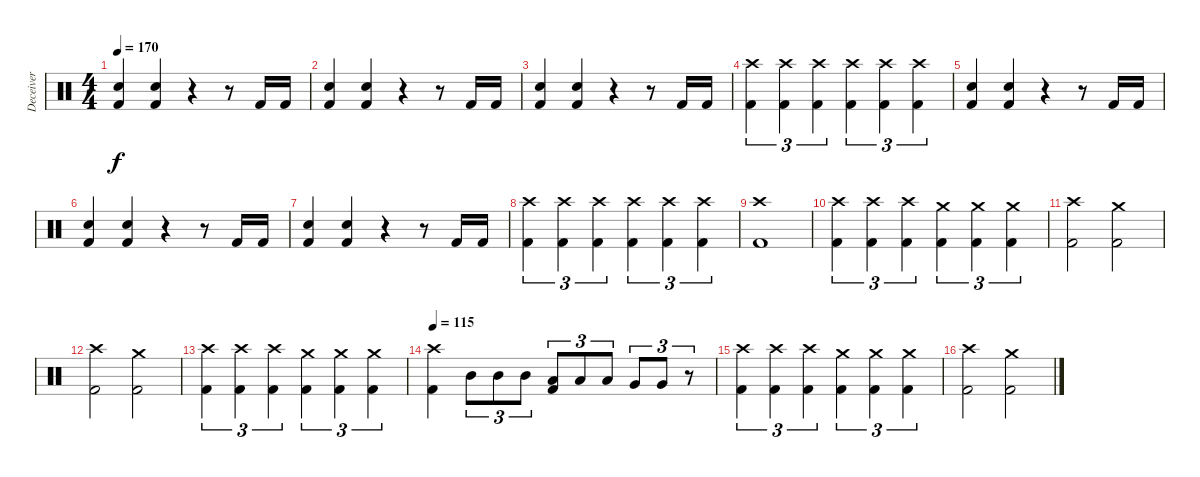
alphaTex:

\track ("Deceiver" "Deceiver") {instrument percussion}
\staff {score}
\articulation defaults
\ts (4 4)
\tempo 170
\clef neutral
\ks c
("Electric Snare (hit)" "Kick (hit) 2").4{dy f} ("Electric Snare (hit)" "Kick (hit) 2").4 r.4 r.8 "Kick (hit) 2".16 "Kick (hit) 2".16 |
("Electric Snare (hit)" "Kick (hit) 2").4 ("Electric Snare (hit)" "Kick (hit) 2").4 r.4 r.8 "Kick (hit) 2".16 "Kick (hit) 2".16 |
("Electric Snare (hit)" "Kick (hit) 2").4 ("Electric Snare (hit)" "Kick (hit) 2").4 r.4 r.8 "Kick (hit) 2".16 "Kick (hit) 2".16 |
("Crash high (hit)" "Kick (hit) 2").4{tu (3 2)} ("Crash high (hit)" "Kick (hit) 2").4{tu (3 2)} ("Crash high (hit)" "Kick (hit) 2").4{tu (3 2)} ("Crash high (hit)" "Kick (hit) 2").4{tu (3 2)} ("Crash high (hit)" "Kick (hit) 2").4{tu (3 2)} ("Crash high (hit)" "Kick (hit) 2").4{tu (3 2)} |
("Electric Snare (hit)" "Kick (hit) 2").4 ("Electric Snare (hit)" "Kick (hit) 2").4 r.4 r.8 "Kick (hit) 2".16 "Kick (hit) 2".16 |
("Electric Snare (hit)" "Kick (hit) 2").4 ("Electric Snare (hit)" "Kick (hit) 2").4 r.4 r.8 "Kick (hit) 2".16 "Kick (hit) 2".16 |
("Electric Snare (hit)" "Kick (hit) 2").4 ("Electric Snare (hit)" "Kick (hit) 2").4 r.4 r.8 "Kick (hit) 2".16 "Kick (hit) 2".16 |
("Crash high (hit)" "Kick (hit) 2").4{tu (3 2)} ("Crash high (hit)" "Kick (hit) 2").4{tu (3 2)} ("Crash high (hit)" "Kick (hit) 2").4{tu (3 2)} ("Crash high (hit)" "Kick (hit) 2").4{tu (3 2)} ("Crash high (hit)" "Kick (hit) 2").4{tu (3 2)} ("Crash high (hit)" "Kick (hit) 2").4{tu (3 2)} |
("Crash high (hit)" "Kick (hit) 2").1 |
("Crash high (hit)" "Kick (hit) 2").4{tu (3 2)} ("Crash high (hit)" "Kick (hit) 2").4{tu (3 2)} ("Crash high (hit)" "Kick (hit) 2").4{tu (3 2)} ("Crash medium (hit)" "Kick (hit) 2").4{tu (3 2)} ("Crash medium (hit)" "Kick (hit) 2").4{tu (3 2)} ("Crash medium (hit)" "Kick (hit) 2").4{tu (3 2)} |
("Crash high (hit)" "Kick (hit) 2").2 ("Crash medium (hit)" "Kick (hit) 2").2 |
("Crash high (hit)" "Kick (hit) 2").2 ("Crash medium (hit)" "Kick (hit) 2").2 |
("Crash high (hit)" "Kick (hit) 2").4{tu (3 2)} ("Crash high (hit)" "Kick (hit) 2").4{tu (3 2)} ("Crash high (hit)" "Kick (hit) 2").4{tu (3 2)} ("Crash medium (hit)" "Kick (hit) 2").4{tu (3 2)} ("Crash medium (hit)" "Kick (hit) 2").4{tu (3 2)} ("Crash medium (hit)" "Kick (hit) 2").4{tu (3 2)} |
\tempo 115
("Crash high (hit)" "Kick (hit) 2").4 "Mid Tom (hit)".8{tu (3 2)} "Mid Tom (hit)".8{tu (3 2)} "Mid Tom (hit)".8{tu (3 2)} ("Low Tom (hit)" "Kick (hit) 2").8{tu (3 2)} "Low Tom (hit)".8{tu (3 2)} "Low Tom (hit)".8{tu (3 2)} "Very Low Tom (hit)".8{tu (3 2)} "Very Low Tom (hit)".8{tu (3 2)} r.8{tu (3 2)} |
("Crash high (hit)" "Kick (hit) 2").4{tu (3 2)} ("Crash high (hit)" "Kick (hit) 2").4{tu (3 2)} ("Crash high (hit)" "Kick (hit) 2").4{tu (3 2)} ("Crash medium (hit)" "Kick (hit) 2").4{tu (3 2)} ("Crash medium (hit)" "Kick (hit) 2").4{tu (3 2)} ("Crash medium (hit)" "Kick (hit) 2").4{tu (3 2)} |
("Crash high (hit)" "Kick (hit) 2").2 ("Crash medium (hit)" "Kick (hit) 2").2
